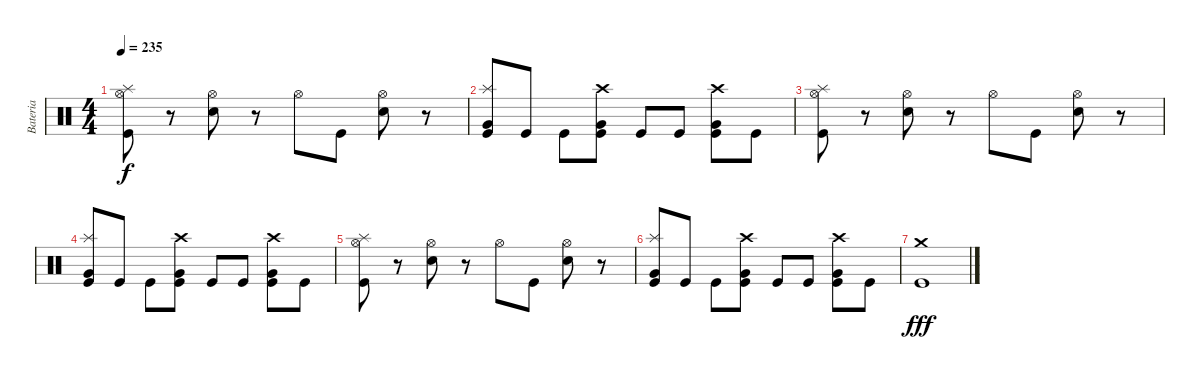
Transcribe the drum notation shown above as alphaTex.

\track ("Bateria" "Bateria") {instrument percussion}
\staff {score}
\articulation defaults
\ts (4 4)
\tempo 235
\clef neutral
\ks c
("Kick (hit)" "Hi-Hat (open)" "Splash (hit)").8{dy f} r.8 ("Electric Snare (hit)" "Hi-Hat (open)").8 r.8 "Hi-Hat (open)".8 "Kick (hit)".8 ("Electric Snare (hit)" "Hi-Hat (open)").8 r.8 |
("Kick (hit)" "Very Low Tom (hit)" "Splash (hit)").8 "Kick (hit)".8 "Kick (hit)".8 ("Kick (hit)" "Very Low Tom (hit)" "Crash high (hit)").8 "Kick (hit)".8 "Kick (hit)".8 ("Kick (hit)" "Very Low Tom (hit)" "Crash high (hit)").8 "Kick (hit)".8 |
("Kick (hit)" "Hi-Hat (open)" "Splash (hit)").8 r.8 ("Electric Snare (hit)" "Hi-Hat (open)").8 r.8 "Hi-Hat (open)".8 "Kick (hit)".8 ("Electric Snare (hit)" "Hi-Hat (open)").8 r.8 |
("Kick (hit)" "Very Low Tom (hit)" "Splash (hit)").8 "Kick (hit)".8 "Kick (hit)".8 ("Kick (hit)" "Very Low Tom (hit)" "Crash high (hit)").8 "Kick (hit)".8 "Kick (hit)".8 ("Kick (hit)" "Very Low Tom (hit)" "Crash high (hit)").8 "Kick (hit)".8 |
("Kick (hit)" "Hi-Hat (open)" "Splash (hit)").8 r.8 ("Electric Snare (hit)" "Hi-Hat (open)").8 r.8 "Hi-Hat (open)".8 "Kick (hit)".8 ("Electric Snare (hit)" "Hi-Hat (open)").8 r.8 |
("Kick (hit)" "Very Low Tom (hit)" "Splash (hit)").8 "Kick (hit)".8 "Kick (hit)".8 ("Kick (hit)" "Very Low Tom (hit)" "Crash high (hit)").8 "Kick (hit)".8 "Kick (hit)".8 ("Kick (hit)" "Very Low Tom (hit)" "Crash high (hit)").8 "Kick (hit)".8 |
("Kick (hit)" "Crash medium (hit)").1{dy fff}
